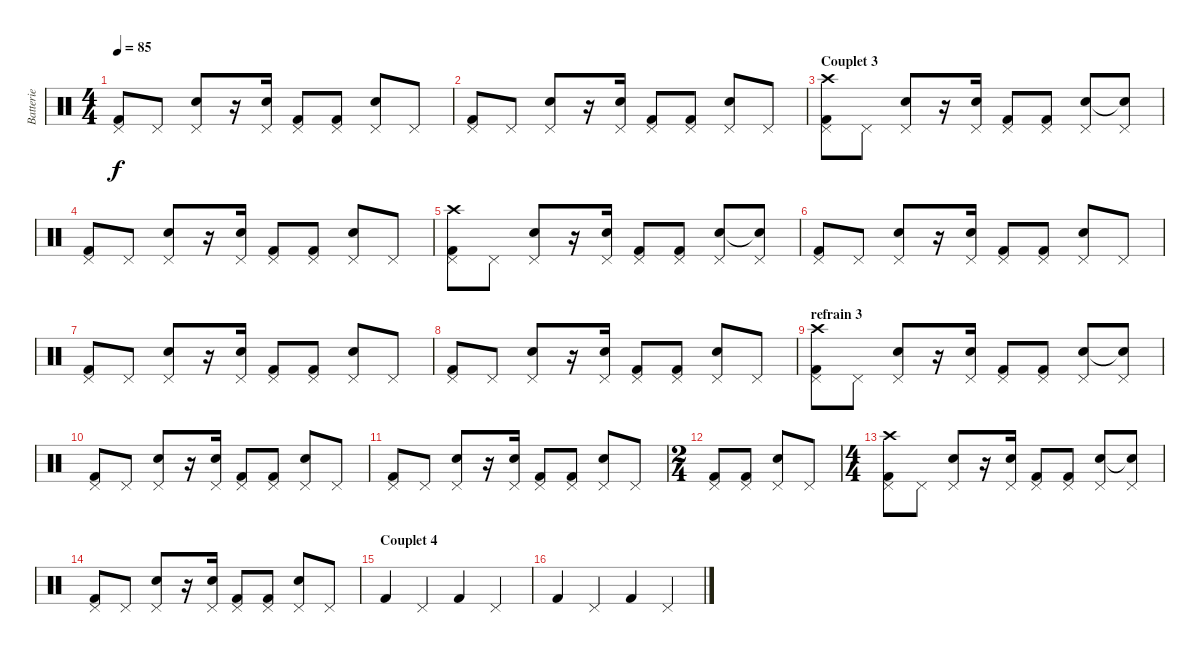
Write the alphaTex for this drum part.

\track ("Batterie" "Batterie") {instrument percussion}
\staff {score}
\articulation defaults
\ts (4 4)
\tempo 85
\clef neutral
\ks c
("Pedal Hi-Hat (hit)" "Kick (hit) 2").8{dy f} "Pedal Hi-Hat (hit)".8 ("Pedal Hi-Hat (hit)" "Electric Snare (hit)").8 r.16 ("Pedal Hi-Hat (hit)" "Electric Snare (hit)").16 ("Pedal Hi-Hat (hit)" "Kick (hit) 2").8 ("Pedal Hi-Hat (hit)" "Kick (hit) 2").8 ("Pedal Hi-Hat (hit)" "Electric Snare (hit)").8 "Pedal Hi-Hat (hit)".8 |
("Pedal Hi-Hat (hit)" "Kick (hit) 2").8 "Pedal Hi-Hat (hit)".8 ("Pedal Hi-Hat (hit)" "Electric Snare (hit)").8 r.16 ("Pedal Hi-Hat (hit)" "Electric Snare (hit)").16 ("Pedal Hi-Hat (hit)" "Kick (hit) 2").8 ("Pedal Hi-Hat (hit)" "Kick (hit) 2").8 ("Pedal Hi-Hat (hit)" "Electric Snare (hit)").8 "Pedal Hi-Hat (hit)".8 |
\section ("" "Couplet 3")
("Pedal Hi-Hat (hit)" "Crash high (hit)" "Kick (hit) 2").8 "Pedal Hi-Hat (hit)".8 ("Pedal Hi-Hat (hit)" "Electric Snare (hit)").8 r.16 ("Pedal Hi-Hat (hit)" "Electric Snare (hit)").16 ("Pedal Hi-Hat (hit)" "Kick (hit) 2").8 ("Pedal Hi-Hat (hit)" "Kick (hit) 2").8 ("Pedal Hi-Hat (hit)" "Electric Snare (hit)").8 ("Pedal Hi-Hat (hit)" "Snare (hit)"{t}).8 |
("Pedal Hi-Hat (hit)" "Kick (hit) 2").8 "Pedal Hi-Hat (hit)".8 ("Pedal Hi-Hat (hit)" "Electric Snare (hit)").8 r.16 ("Pedal Hi-Hat (hit)" "Electric Snare (hit)").16 ("Pedal Hi-Hat (hit)" "Kick (hit) 2").8 ("Pedal Hi-Hat (hit)" "Kick (hit) 2").8 ("Pedal Hi-Hat (hit)" "Electric Snare (hit)").8 "Pedal Hi-Hat (hit)".8 |
("Pedal Hi-Hat (hit)" "Crash high (hit)" "Kick (hit) 2").8 "Pedal Hi-Hat (hit)".8 ("Pedal Hi-Hat (hit)" "Electric Snare (hit)").8 r.16 ("Pedal Hi-Hat (hit)" "Electric Snare (hit)").16 ("Pedal Hi-Hat (hit)" "Kick (hit) 2").8 ("Pedal Hi-Hat (hit)" "Kick (hit) 2").8 ("Pedal Hi-Hat (hit)" "Electric Snare (hit)").8 ("Pedal Hi-Hat (hit)" "Snare (hit)"{t}).8 |
("Pedal Hi-Hat (hit)" "Kick (hit) 2").8 "Pedal Hi-Hat (hit)".8 ("Pedal Hi-Hat (hit)" "Electric Snare (hit)").8 r.16 ("Pedal Hi-Hat (hit)" "Electric Snare (hit)").16 ("Pedal Hi-Hat (hit)" "Kick (hit) 2").8 ("Pedal Hi-Hat (hit)" "Kick (hit) 2").8 ("Pedal Hi-Hat (hit)" "Electric Snare (hit)").8 "Pedal Hi-Hat (hit)".8 |
("Pedal Hi-Hat (hit)" "Kick (hit) 2").8 "Pedal Hi-Hat (hit)".8 ("Pedal Hi-Hat (hit)" "Electric Snare (hit)").8 r.16 ("Pedal Hi-Hat (hit)" "Electric Snare (hit)").16 ("Pedal Hi-Hat (hit)" "Kick (hit) 2").8 ("Pedal Hi-Hat (hit)" "Kick (hit) 2").8 ("Pedal Hi-Hat (hit)" "Electric Snare (hit)").8 "Pedal Hi-Hat (hit)".8 |
("Pedal Hi-Hat (hit)" "Kick (hit) 2").8 "Pedal Hi-Hat (hit)".8 ("Pedal Hi-Hat (hit)" "Electric Snare (hit)").8 r.16 ("Pedal Hi-Hat (hit)" "Electric Snare (hit)").16 ("Pedal Hi-Hat (hit)" "Kick (hit) 2").8 ("Pedal Hi-Hat (hit)" "Kick (hit) 2").8 ("Pedal Hi-Hat (hit)" "Electric Snare (hit)").8 "Pedal Hi-Hat (hit)".8 |
\section ("" "refrain 3")
("Pedal Hi-Hat (hit)" "Crash high (hit)" "Kick (hit) 2").8 "Pedal Hi-Hat (hit)".8 ("Pedal Hi-Hat (hit)" "Electric Snare (hit)").8 r.16 ("Pedal Hi-Hat (hit)" "Electric Snare (hit)").16 ("Pedal Hi-Hat (hit)" "Kick (hit) 2").8 ("Pedal Hi-Hat (hit)" "Kick (hit) 2").8 ("Pedal Hi-Hat (hit)" "Electric Snare (hit)").8 ("Pedal Hi-Hat (hit)" "Snare (hit)"{t}).8 |
("Pedal Hi-Hat (hit)" "Kick (hit) 2").8 "Pedal Hi-Hat (hit)".8 ("Pedal Hi-Hat (hit)" "Electric Snare (hit)").8 r.16 ("Pedal Hi-Hat (hit)" "Electric Snare (hit)").16 ("Pedal Hi-Hat (hit)" "Kick (hit) 2").8 ("Pedal Hi-Hat (hit)" "Kick (hit) 2").8 ("Pedal Hi-Hat (hit)" "Electric Snare (hit)").8 "Pedal Hi-Hat (hit)".8 |
("Pedal Hi-Hat (hit)" "Kick (hit) 2").8 "Pedal Hi-Hat (hit)".8 ("Pedal Hi-Hat (hit)" "Electric Snare (hit)").8 r.16 ("Pedal Hi-Hat (hit)" "Electric Snare (hit)").16 ("Pedal Hi-Hat (hit)" "Kick (hit) 2").8 ("Pedal Hi-Hat (hit)" "Kick (hit) 2").8 ("Pedal Hi-Hat (hit)" "Electric Snare (hit)").8 "Pedal Hi-Hat (hit)".8 |
\ts (2 4)
("Pedal Hi-Hat (hit)" "Kick (hit) 2").8 ("Pedal Hi-Hat (hit)" "Kick (hit) 2").8 ("Pedal Hi-Hat (hit)" "Electric Snare (hit)").8 "Pedal Hi-Hat (hit)".8 |
\ts (4 4)
("Pedal Hi-Hat (hit)" "Crash high (hit)" "Kick (hit) 2").8 "Pedal Hi-Hat (hit)".8 ("Pedal Hi-Hat (hit)" "Electric Snare (hit)").8 r.16 ("Pedal Hi-Hat (hit)" "Electric Snare (hit)").16 ("Pedal Hi-Hat (hit)" "Kick (hit) 2").8 ("Pedal Hi-Hat (hit)" "Kick (hit) 2").8 ("Pedal Hi-Hat (hit)" "Electric Snare (hit)").8 ("Pedal Hi-Hat (hit)" "Snare (hit)"{t}).8 |
("Pedal Hi-Hat (hit)" "Kick (hit) 2").8 "Pedal Hi-Hat (hit)".8 ("Pedal Hi-Hat (hit)" "Electric Snare (hit)").8 r.16 ("Pedal Hi-Hat (hit)" "Electric Snare (hit)").16 ("Pedal Hi-Hat (hit)" "Kick (hit) 2").8 ("Pedal Hi-Hat (hit)" "Kick (hit) 2").8 ("Pedal Hi-Hat (hit)" "Electric Snare (hit)").8 "Pedal Hi-Hat (hit)".8 |
\section ("" "Couplet 4")
"Kick (hit) 2".4 "Pedal Hi-Hat (hit)".4 "Kick (hit) 2".4 "Pedal Hi-Hat (hit)".4 |
"Kick (hit) 2".4 "Pedal Hi-Hat (hit)".4 "Kick (hit) 2".4 "Pedal Hi-Hat (hit)".4
